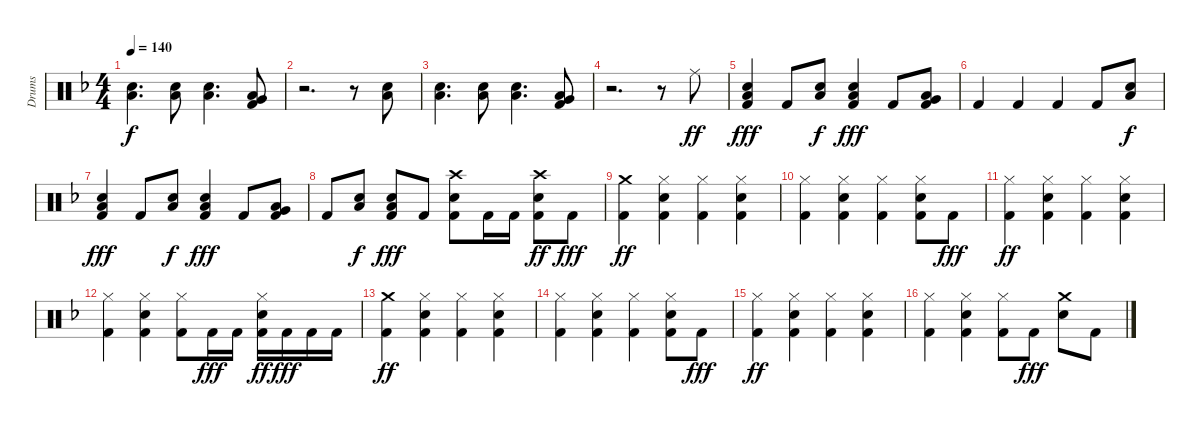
\track ("Drums" "Drums") {instrument percussion}
\staff {score}
\articulation defaults
\ts (4 4)
\tempo 140
\clef neutral
\ks dminor
("Electric Snare (hit)" "Low Tom (hit)").4{d dy f} ("Electric Snare (hit)" "Low Tom (hit)").8 ("Electric Snare (hit)" "Low Tom (hit)").4{d} ("Kick (hit) 2" "Very Low Tom (hit)" "Low Tom (hit)").8 |
r.2{d} r.8 ("Electric Snare (hit)" "Low Tom (hit)").8 |
("Electric Snare (hit)" "Low Tom (hit)").4{d} ("Electric Snare (hit)" "Low Tom (hit)").8 ("Electric Snare (hit)" "Low Tom (hit)").4{d} ("Kick (hit) 2" "Very Low Tom (hit)" "Low Tom (hit)").8 |
r.2{d} r.8 "Ride (middle)".8{dy ff} |
("Electric Snare (hit)" "Low Tom (hit)" "Kick (hit) 2").4{dy fff} "Kick (hit) 2".8 ("Electric Snare (hit)" "Low Tom (hit)").8{dy f} ("Electric Snare (hit)" "Low Tom (hit)" "Kick (hit) 2").4{dy fff} "Kick (hit) 2".8 ("Kick (hit) 2" "Very Low Tom (hit)" "Low Tom (hit)").8 |
"Kick (hit) 2".4 "Kick (hit) 2".4 "Kick (hit) 2".4 "Kick (hit) 2".8 ("Electric Snare (hit)" "Low Tom (hit)").8{dy f} |
("Electric Snare (hit)" "Low Tom (hit)" "Kick (hit) 2").4{dy fff} "Kick (hit) 2".8 ("Electric Snare (hit)" "Low Tom (hit)").8{dy f} ("Electric Snare (hit)" "Low Tom (hit)" "Kick (hit) 2").4{dy fff} "Kick (hit) 2".8 ("Kick (hit) 2" "Very Low Tom (hit)" "Low Tom (hit)").8 |
"Kick (hit) 2".8 ("Electric Snare (hit)" "Low Tom (hit)").8{dy f} ("Electric Snare (hit)" "Low Tom (hit)" "Kick (hit) 2").8{dy fff} "Kick (hit) 2".8 ("Crash high (hit)" "Electric Snare (hit)" "Kick (hit) 2").8 "Kick (hit) 2".16 "Kick (hit) 2".16 ("Electric Snare (hit)" "Kick (hit) 2" "Crash high (hit)").8{dy ff} "Kick (hit) 2".8{dy fff} |
("Kick (hit) 2" "Crash medium (hit)").4{dy ff} ("Kick (hit) 2" "Electric Snare (hit)" "Hi-Hat (closed)").4 ("Kick (hit) 2" "Hi-Hat (closed)").4 ("Kick (hit) 2" "Electric Snare (hit)" "Hi-Hat (closed)").4 |
("Kick (hit) 2" "Hi-Hat (closed)").4 ("Kick (hit) 2" "Electric Snare (hit)" "Hi-Hat (closed)").4 ("Kick (hit) 2" "Hi-Hat (closed)").4 ("Kick (hit) 2" "Electric Snare (hit)" "Hi-Hat (closed)").8 "Kick (hit) 2".8{dy fff} |
("Kick (hit) 2" "Hi-Hat (closed)").4{dy ff} ("Kick (hit) 2" "Electric Snare (hit)" "Hi-Hat (closed)").4 ("Kick (hit) 2" "Hi-Hat (closed)").4 ("Kick (hit) 2" "Electric Snare (hit)" "Hi-Hat (closed)").4 |
("Kick (hit) 2" "Hi-Hat (closed)").4 ("Kick (hit) 2" "Electric Snare (hit)" "Hi-Hat (closed)").4 ("Kick (hit) 2" "Hi-Hat (closed)").8 "Kick (hit) 2".16{dy fff} "Kick (hit) 2".16 ("Kick (hit) 2" "Electric Snare (hit)" "Hi-Hat (closed)").16{dy ff} "Kick (hit) 2".16{dy fff} "Kick (hit) 2".16 "Kick (hit) 2".16 |
("Kick (hit) 2" "Crash medium (hit)").4{dy ff} ("Kick (hit) 2" "Electric Snare (hit)" "Hi-Hat (closed)").4 ("Kick (hit) 2" "Hi-Hat (closed)").4 ("Kick (hit) 2" "Electric Snare (hit)" "Hi-Hat (closed)").4 |
("Kick (hit) 2" "Hi-Hat (closed)").4 ("Kick (hit) 2" "Electric Snare (hit)" "Hi-Hat (closed)").4 ("Kick (hit) 2" "Hi-Hat (closed)").4 ("Kick (hit) 2" "Electric Snare (hit)" "Hi-Hat (closed)").8 "Kick (hit) 2".8{dy fff} |
("Kick (hit) 2" "Hi-Hat (closed)").4{dy ff} ("Kick (hit) 2" "Electric Snare (hit)" "Hi-Hat (closed)").4 ("Kick (hit) 2" "Hi-Hat (closed)").4 ("Kick (hit) 2" "Electric Snare (hit)" "Hi-Hat (closed)").4 |
("Kick (hit) 2" "Hi-Hat (closed)").4 ("Kick (hit) 2" "Electric Snare (hit)" "Hi-Hat (closed)").4 ("Kick (hit) 2" "Hi-Hat (closed)").8 "Kick (hit) 2".8{dy fff} ("Crash medium (hit)" "Electric Snare (hit)").8 "Kick (hit) 2".8
